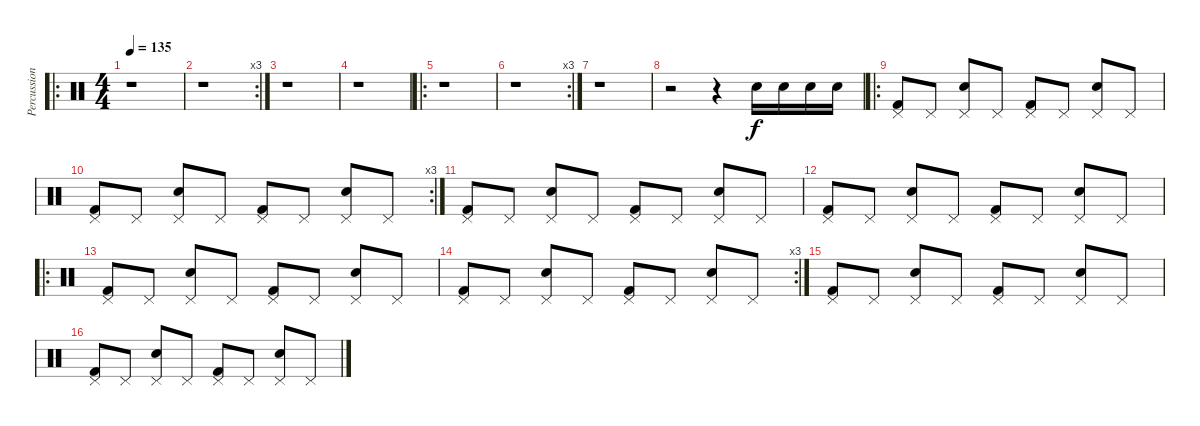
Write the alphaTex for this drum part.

\track ("Percussions" "Percussion") {instrument percussion}
\staff {score}
\articulation defaults
\ro
\ts (4 4)
\tempo 135
\clef neutral
\ks c
r.1{dy f} |
\rc 3
r.1 |
r.1 |
r.1 |
\ro
r.1 |
\rc 3
r.1 |
r.1 |
r.2 r.4 "Electric Snare (hit)".16 "Electric Snare (hit)".16 "Electric Snare (hit)".16 "Electric Snare (hit)".16 |
\ro
("Pedal Hi-Hat (hit)" "Kick (hit) 2").8 "Pedal Hi-Hat (hit)".8 ("Pedal Hi-Hat (hit)" "Electric Snare (hit)").8 "Pedal Hi-Hat (hit)".8 ("Pedal Hi-Hat (hit)" "Kick (hit) 2").8 "Pedal Hi-Hat (hit)".8 ("Pedal Hi-Hat (hit)" "Electric Snare (hit)").8 "Pedal Hi-Hat (hit)".8 |
\rc 3
("Pedal Hi-Hat (hit)" "Kick (hit) 2").8 "Pedal Hi-Hat (hit)".8 ("Pedal Hi-Hat (hit)" "Electric Snare (hit)").8 "Pedal Hi-Hat (hit)".8 ("Pedal Hi-Hat (hit)" "Kick (hit) 2").8 "Pedal Hi-Hat (hit)".8 ("Pedal Hi-Hat (hit)" "Electric Snare (hit)").8 "Pedal Hi-Hat (hit)".8 |
("Pedal Hi-Hat (hit)" "Kick (hit) 2").8 "Pedal Hi-Hat (hit)".8 ("Pedal Hi-Hat (hit)" "Electric Snare (hit)").8 "Pedal Hi-Hat (hit)".8 ("Pedal Hi-Hat (hit)" "Kick (hit) 2").8 "Pedal Hi-Hat (hit)".8 ("Pedal Hi-Hat (hit)" "Electric Snare (hit)").8 "Pedal Hi-Hat (hit)".8 |
("Pedal Hi-Hat (hit)" "Kick (hit) 2").8 "Pedal Hi-Hat (hit)".8 ("Pedal Hi-Hat (hit)" "Electric Snare (hit)").8 "Pedal Hi-Hat (hit)".8 ("Pedal Hi-Hat (hit)" "Kick (hit) 2").8 "Pedal Hi-Hat (hit)".8 ("Pedal Hi-Hat (hit)" "Electric Snare (hit)").8 "Pedal Hi-Hat (hit)".8 |
\ro
("Pedal Hi-Hat (hit)" "Kick (hit) 2").8 "Pedal Hi-Hat (hit)".8 ("Pedal Hi-Hat (hit)" "Electric Snare (hit)").8 "Pedal Hi-Hat (hit)".8 ("Pedal Hi-Hat (hit)" "Kick (hit) 2").8 "Pedal Hi-Hat (hit)".8 ("Pedal Hi-Hat (hit)" "Electric Snare (hit)").8 "Pedal Hi-Hat (hit)".8 |
\rc 3
("Pedal Hi-Hat (hit)" "Kick (hit) 2").8 "Pedal Hi-Hat (hit)".8 ("Pedal Hi-Hat (hit)" "Electric Snare (hit)").8 "Pedal Hi-Hat (hit)".8 ("Pedal Hi-Hat (hit)" "Kick (hit) 2").8 "Pedal Hi-Hat (hit)".8 ("Pedal Hi-Hat (hit)" "Electric Snare (hit)").8 "Pedal Hi-Hat (hit)".8 |
("Pedal Hi-Hat (hit)" "Kick (hit) 2").8 "Pedal Hi-Hat (hit)".8 ("Pedal Hi-Hat (hit)" "Electric Snare (hit)").8 "Pedal Hi-Hat (hit)".8 ("Pedal Hi-Hat (hit)" "Kick (hit) 2").8 "Pedal Hi-Hat (hit)".8 ("Pedal Hi-Hat (hit)" "Electric Snare (hit)").8 "Pedal Hi-Hat (hit)".8 |
("Pedal Hi-Hat (hit)" "Kick (hit) 2").8 "Pedal Hi-Hat (hit)".8 ("Pedal Hi-Hat (hit)" "Electric Snare (hit)").8 "Pedal Hi-Hat (hit)".8 ("Pedal Hi-Hat (hit)" "Kick (hit) 2").8 "Pedal Hi-Hat (hit)".8 ("Pedal Hi-Hat (hit)" "Electric Snare (hit)").8 "Pedal Hi-Hat (hit)".8
